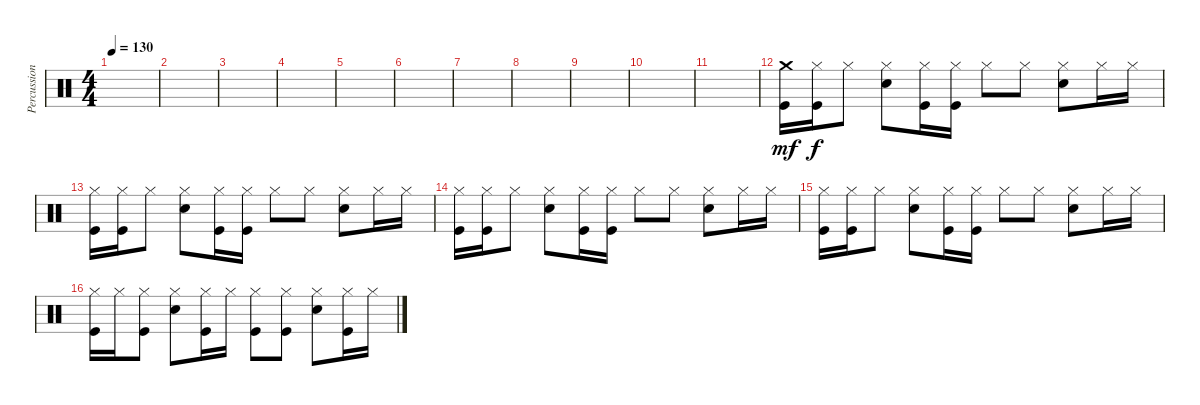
\track ("Percussion" "Percussion") {instrument percussion}
\staff {score}
\articulation defaults
\ts (4 4)
\tempo 130
\clef neutral
\ks c
|
|
|
|
|
|
|
|
|
|
|
("Crash medium (hit)" "Kick (hit)").16{dy mf} ("Hi-Hat (closed)" "Kick (hit)").16{dy f} "Hi-Hat (closed)".8 ("Hi-Hat (closed)" "Electric Snare (hit)").8 ("Hi-Hat (closed)" "Kick (hit)").16 ("Hi-Hat (closed)" "Kick (hit)").16 "Hi-Hat (closed)".8 "Hi-Hat (closed)".8 ("Hi-Hat (closed)" "Electric Snare (hit)").8 "Hi-Hat (closed)".16 "Hi-Hat (closed)".16 |
("Hi-Hat (closed)" "Kick (hit)").16 ("Hi-Hat (closed)" "Kick (hit)").16 "Hi-Hat (closed)".8 ("Hi-Hat (closed)" "Electric Snare (hit)").8 ("Hi-Hat (closed)" "Kick (hit)").16 ("Hi-Hat (closed)" "Kick (hit)").16 "Hi-Hat (closed)".8 "Hi-Hat (closed)".8 ("Hi-Hat (closed)" "Electric Snare (hit)").8 "Hi-Hat (closed)".16 "Hi-Hat (closed)".16 |
("Hi-Hat (closed)" "Kick (hit)").16 ("Hi-Hat (closed)" "Kick (hit)").16 "Hi-Hat (closed)".8 ("Hi-Hat (closed)" "Electric Snare (hit)").8 ("Hi-Hat (closed)" "Kick (hit)").16 ("Hi-Hat (closed)" "Kick (hit)").16 "Hi-Hat (closed)".8 "Hi-Hat (closed)".8 ("Hi-Hat (closed)" "Electric Snare (hit)").8 "Hi-Hat (closed)".16 "Hi-Hat (closed)".16 |
("Hi-Hat (closed)" "Kick (hit)").16 ("Hi-Hat (closed)" "Kick (hit)").16 "Hi-Hat (closed)".8 ("Hi-Hat (closed)" "Electric Snare (hit)").8 ("Hi-Hat (closed)" "Kick (hit)").16 ("Hi-Hat (closed)" "Kick (hit)").16 "Hi-Hat (closed)".8 "Hi-Hat (closed)".8 ("Hi-Hat (closed)" "Electric Snare (hit)").8 "Hi-Hat (closed)".16 "Hi-Hat (closed)".16 |
("Hi-Hat (closed)" "Kick (hit)").16 "Hi-Hat (closed)".16 ("Hi-Hat (closed)" "Kick (hit)").8 ("Hi-Hat (closed)" "Electric Snare (hit)").8 ("Hi-Hat (closed)" "Kick (hit)").16 "Hi-Hat (closed)".16 ("Hi-Hat (closed)" "Kick (hit)").8 ("Hi-Hat (closed)" "Kick (hit)").8 ("Hi-Hat (closed)" "Electric Snare (hit)").8 ("Hi-Hat (closed)" "Kick (hit)").16 "Hi-Hat (closed)".16
